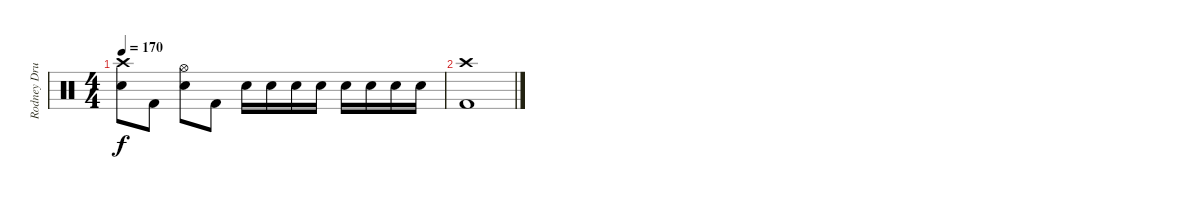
\track ("Rodney Drums" "Rodney Dru") {instrument percussion}
\staff {score}
\articulation defaults
\ts (4 4)
\tempo 170
\clef neutral
\ks c
("Crash high (hit)" "Electric Snare (hit)").8{dy f} "Kick (hit) 2".8 ("Hi-Hat (open)" "Electric Snare (hit)").8 "Kick (hit) 2".8 "Electric Snare (hit)".16 "Electric Snare (hit)".16 "Electric Snare (hit)".16 "Electric Snare (hit)".16 "Electric Snare (hit)".16 "Electric Snare (hit)".16 "Electric Snare (hit)".16 "Electric Snare (hit)".16 |
("Crash high (hit)" "Kick (hit) 2").1
